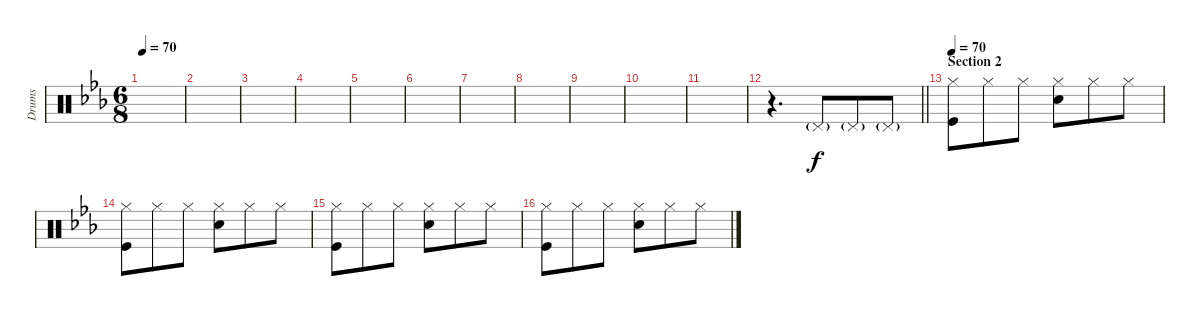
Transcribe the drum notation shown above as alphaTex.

\track ("Drums" "Drums") {instrument percussion}
\staff {score}
\articulation defaults
\ts (6 8)
\tempo 70
\clef neutral
\ks cminor
|
|
|
|
|
|
|
|
|
|
|
\barLineRight lightlight
r.4{d} "Pedal Hi-Hat (hit)"{g}.8 "Pedal Hi-Hat (hit)"{g}.8 "Pedal Hi-Hat (hit)"{g}.8 |
\section ("" "Section 2")
\tempo 70
("Hi-Hat (closed)" "Kick (hit)").8{dy f} "Hi-Hat (closed)".8 "Hi-Hat (closed)".8 ("Hi-Hat (closed)" "Snare (hit) 2").8 "Hi-Hat (closed)".8 "Hi-Hat (closed)".8 |
("Hi-Hat (closed)" "Kick (hit)").8 "Hi-Hat (closed)".8 "Hi-Hat (closed)".8 ("Hi-Hat (closed)" "Snare (hit) 2").8 "Hi-Hat (closed)".8 "Hi-Hat (closed)".8 |
("Hi-Hat (closed)" "Kick (hit)").8 "Hi-Hat (closed)".8 "Hi-Hat (closed)".8 ("Hi-Hat (closed)" "Snare (hit) 2").8 "Hi-Hat (closed)".8 "Hi-Hat (closed)".8 |
("Hi-Hat (closed)" "Kick (hit)").8 "Hi-Hat (closed)".8 "Hi-Hat (closed)".8 ("Hi-Hat (closed)" "Snare (hit) 2").8 "Hi-Hat (closed)".8 "Hi-Hat (closed)".8
